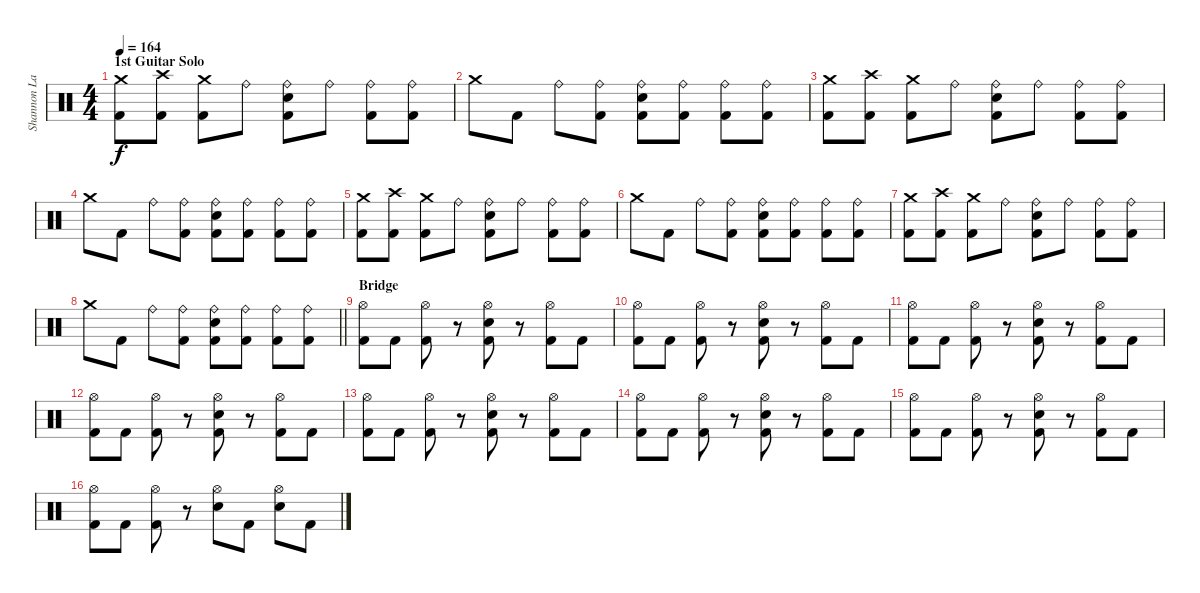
\track ("Shannon Larkin" "Shannon La") {instrument percussion}
\staff {score}
\articulation defaults
\ts (4 4)
\section ("" "1st Guitar Solo")
\tempo 164
\clef neutral
\ks c
("Crash medium (hit)" "Kick (hit) 2").8{dy f} ("Crash high (hit)" "Kick (hit) 2").8 ("Crash medium (hit)" "Kick (hit) 2").8 "Ride (bell)".8 ("Ride (bell)" "Electric Snare (hit)" "Kick (hit) 2").8 "Ride (bell)".8 ("Ride (bell)" "Kick (hit) 2").8 ("Ride (bell)" "Kick (hit) 2").8 |
"Crash medium (hit)".8 "Kick (hit) 2".8 "Ride (bell)".8 ("Ride (bell)" "Kick (hit) 2").8 ("Ride (bell)" "Electric Snare (hit)" "Kick (hit) 2").8 ("Ride (bell)" "Kick (hit) 2").8 ("Ride (bell)" "Kick (hit) 2").8 ("Ride (bell)" "Kick (hit) 2").8 |
("Crash medium (hit)" "Kick (hit) 2").8 ("Crash high (hit)" "Kick (hit) 2").8 ("Crash medium (hit)" "Kick (hit) 2").8 "Ride (bell)".8 ("Ride (bell)" "Electric Snare (hit)" "Kick (hit) 2").8 "Ride (bell)".8 ("Ride (bell)" "Kick (hit) 2").8 ("Ride (bell)" "Kick (hit) 2").8 |
"Crash medium (hit)".8 "Kick (hit) 2".8 "Ride (bell)".8 ("Ride (bell)" "Kick (hit) 2").8 ("Ride (bell)" "Electric Snare (hit)" "Kick (hit) 2").8 ("Ride (bell)" "Kick (hit) 2").8 ("Ride (bell)" "Kick (hit) 2").8 ("Ride (bell)" "Kick (hit) 2").8 |
("Crash medium (hit)" "Kick (hit) 2").8 ("Crash high (hit)" "Kick (hit) 2").8 ("Crash medium (hit)" "Kick (hit) 2").8 "Ride (bell)".8 ("Ride (bell)" "Electric Snare (hit)" "Kick (hit) 2").8 "Ride (bell)".8 ("Ride (bell)" "Kick (hit) 2").8 ("Ride (bell)" "Kick (hit) 2").8 |
"Crash medium (hit)".8 "Kick (hit) 2".8 "Ride (bell)".8 ("Ride (bell)" "Kick (hit) 2").8 ("Ride (bell)" "Electric Snare (hit)" "Kick (hit) 2").8 ("Ride (bell)" "Kick (hit) 2").8 ("Ride (bell)" "Kick (hit) 2").8 ("Ride (bell)" "Kick (hit) 2").8 |
("Crash medium (hit)" "Kick (hit) 2").8 ("Crash high (hit)" "Kick (hit) 2").8 ("Crash medium (hit)" "Kick (hit) 2").8 "Ride (bell)".8 ("Ride (bell)" "Electric Snare (hit)" "Kick (hit) 2").8 "Ride (bell)".8 ("Ride (bell)" "Kick (hit) 2").8 ("Ride (bell)" "Kick (hit) 2").8 |
\barLineRight lightlight "Crash medium (hit)".8 "Kick (hit) 2".8 "Ride (bell)".8
("Ride (bell)" "Kick (hit) 2").8 ("Ride (bell)" "Electric Snare (hit)" "Kick (hit) 2").8 ("Ride (bell)" "Kick (hit) 2").8 ("Ride (bell)" "Kick (hit) 2").8 ("Ride (bell)" "Kick (hit) 2").8 |
\section ("" "Bridge")
("Hi-Hat (open)" "Kick (hit) 2").8 "Kick (hit) 2".8 ("Hi-Hat (open)" "Kick (hit) 2").8 r.8 ("Hi-Hat (open)" "Electric Snare (hit)" "Kick (hit) 2").8 r.8 ("Hi-Hat (open)" "Kick (hit) 2").8 "Kick (hit) 2".8 |
("Hi-Hat (open)" "Kick (hit) 2").8 "Kick (hit) 2".8 ("Hi-Hat (open)" "Kick (hit) 2").8 r.8 ("Hi-Hat (open)" "Electric Snare (hit)" "Kick (hit) 2").8 r.8 ("Hi-Hat (open)" "Kick (hit) 2").8 "Kick (hit) 2".8 |
("Hi-Hat (open)" "Kick (hit) 2").8 "Kick (hit) 2".8 ("Hi-Hat (open)" "Kick (hit) 2").8 r.8 ("Hi-Hat (open)" "Electric Snare (hit)" "Kick (hit) 2").8 r.8 ("Hi-Hat (open)" "Kick (hit) 2").8 "Kick (hit) 2".8 |
("Hi-Hat (open)" "Kick (hit) 2").8 "Kick (hit) 2".8 ("Hi-Hat (open)" "Kick (hit) 2").8 r.8 ("Hi-Hat (open)" "Electric Snare (hit)" "Kick (hit) 2").8 r.8 ("Hi-Hat (open)" "Kick (hit) 2").8 "Kick (hit) 2".8 |
("Hi-Hat (open)" "Kick (hit) 2").8 "Kick (hit) 2".8 ("Hi-Hat (open)" "Kick (hit) 2").8 r.8 ("Hi-Hat (open)" "Electric Snare (hit)" "Kick (hit) 2").8 r.8 ("Hi-Hat (open)" "Kick (hit) 2").8 "Kick (hit) 2".8 |
("Hi-Hat (open)" "Kick (hit) 2").8 "Kick (hit) 2".8 ("Hi-Hat (open)" "Kick (hit) 2").8 r.8 ("Hi-Hat (open)" "Electric Snare (hit)" "Kick (hit) 2").8 r.8 ("Hi-Hat (open)" "Kick (hit) 2").8 "Kick (hit) 2".8 |
("Hi-Hat (open)" "Kick (hit) 2").8 "Kick (hit) 2".8 ("Hi-Hat (open)" "Kick (hit) 2").8 r.8 ("Hi-Hat (open)" "Electric Snare (hit)" "Kick (hit) 2").8 r.8 ("Hi-Hat (open)" "Kick (hit) 2").8 "Kick (hit) 2".8 |
("Hi-Hat (open)" "Kick (hit) 2").8 "Kick (hit) 2".8 ("Hi-Hat (open)" "Kick (hit) 2").8 r.8 ("Hi-Hat (open)" "Electric Snare (hit)").8 "Kick (hit) 2".8 ("Hi-Hat (open)" "Electric Snare (hit)").8 "Kick (hit) 2".8
